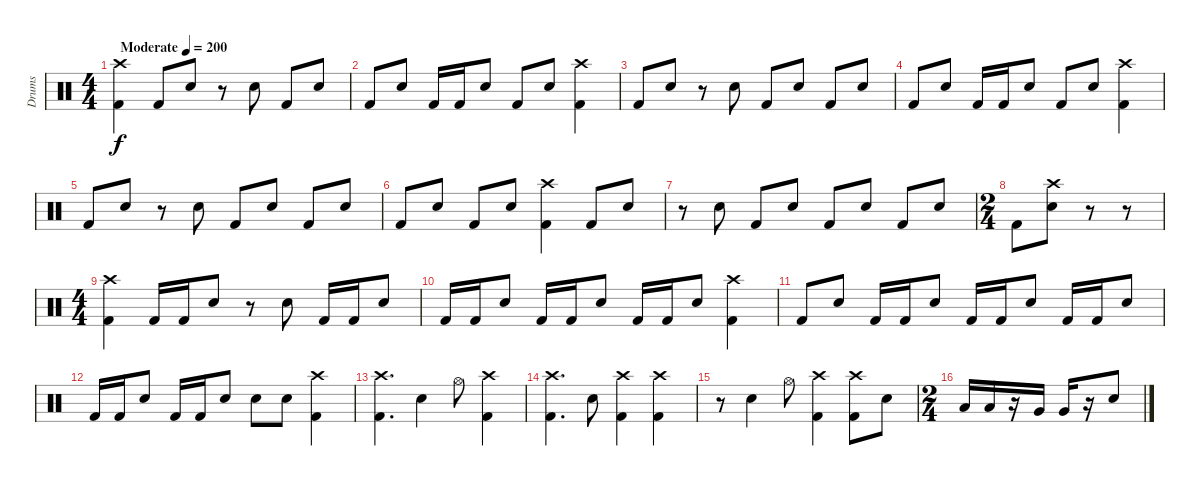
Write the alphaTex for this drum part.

\track ("Drums" "Drums") {instrument percussion}
\staff {score}
\articulation defaults
\ts (4 4)
\tempo (200 "Moderate")
\clef neutral
\ks c
("Crash high (hit)" "Kick (hit) 2").4{dy f} "Kick (hit) 2".8 "Snare (hit) 2".8 r.8 "Snare (hit) 2".8 "Kick (hit) 2".8 "Snare (hit) 2".8 |
"Kick (hit) 2".8 "Snare (hit) 2".8 "Kick (hit) 2".16 "Kick (hit) 2".16 "Snare (hit) 2".8 "Kick (hit) 2".8 "Snare (hit) 2".8 ("Crash high (hit)" "Kick (hit) 2").4 |
"Kick (hit) 2".8 "Snare (hit) 2".8 r.8 "Snare (hit) 2".8 "Kick (hit) 2".8 "Snare (hit) 2".8 "Kick (hit) 2".8 "Snare (hit) 2".8 |
"Kick (hit) 2".8 "Snare (hit) 2".8 "Kick (hit) 2".16 "Kick (hit) 2".16 "Snare (hit) 2".8 "Kick (hit) 2".8 "Snare (hit) 2".8 ("Crash high (hit)" "Kick (hit) 2").4 |
"Kick (hit) 2".8 "Snare (hit) 2".8 r.8 "Snare (hit) 2".8 "Kick (hit) 2".8 "Snare (hit) 2".8 "Kick (hit) 2".8 "Snare (hit) 2".8 |
"Kick (hit) 2".8 "Snare (hit) 2".8 "Kick (hit) 2".8 "Snare (hit) 2".8 ("Crash high (hit)" "Kick (hit) 2").4 "Kick (hit) 2".8 "Snare (hit) 2".8 |
r.8 "Snare (hit) 2".8 "Kick (hit) 2".8 "Snare (hit) 2".8 "Kick (hit) 2".8 "Snare (hit) 2".8 "Kick (hit) 2".8 "Snare (hit) 2".8 |
\ts (2 4)
"Kick (hit) 2".8 ("Crash high (hit)" "Snare (hit) 2").8 r.8 r.8 |
\ts (4 4)
("Crash high (hit)" "Kick (hit) 2").4 "Kick (hit) 2".16 "Kick (hit) 2".16 "Snare (hit) 2".8 r.8 "Snare (hit) 2".8 "Kick (hit) 2".16 "Kick (hit) 2".16 "Snare (hit) 2".8 |
"Kick (hit) 2".16 "Kick (hit) 2".16 "Snare (hit) 2".8 "Kick (hit) 2".16 "Kick (hit) 2".16 "Snare (hit) 2".8 "Kick (hit) 2".16 "Kick (hit) 2".16 "Snare (hit) 2".8 ("Crash high (hit)" "Kick (hit) 2").4 |
"Kick (hit) 2".8 "Snare (hit) 2".8 "Kick (hit) 2".16 "Kick (hit) 2".16 "Snare (hit) 2".8 "Kick (hit) 2".16 "Kick (hit) 2".16 "Snare (hit) 2".8 "Kick (hit) 2".16 "Kick (hit) 2".16 "Snare (hit) 2".8 |
"Kick (hit) 2".16 "Kick (hit) 2".16 "Snare (hit) 2".8 "Kick (hit) 2".16 "Kick (hit) 2".16 "Snare (hit) 2".8 "Snare (hit) 2".8 "Snare (hit) 2".8 ("Crash high (hit)" "Kick (hit) 2").4 |
("Crash high (hit)" "Kick (hit) 2").4{d} "Snare (hit) 2".4 "Hi-Hat (open)".8 ("Crash high (hit)" "Kick (hit) 2").4 |
("Crash high (hit)" "Kick (hit) 2").4{d} "Snare (hit) 2".8 ("Crash high (hit)" "Kick (hit) 2").4 ("Crash high (hit)" "Kick (hit) 2").4 |
r.8 "Snare (hit) 2".4 "Hi-Hat (open)".8 ("Crash high (hit)" "Kick (hit) 2").4 ("Crash high (hit)" "Kick (hit) 2").8 "Snare (hit) 2".8 |
\ts (2 4)
"Low Tom (hit)".16 "Low Tom (hit)".16 r.16 "Very Low Tom (hit)".16 "Very Low Tom (hit)".16 r.16 "Snare (hit) 2".8
